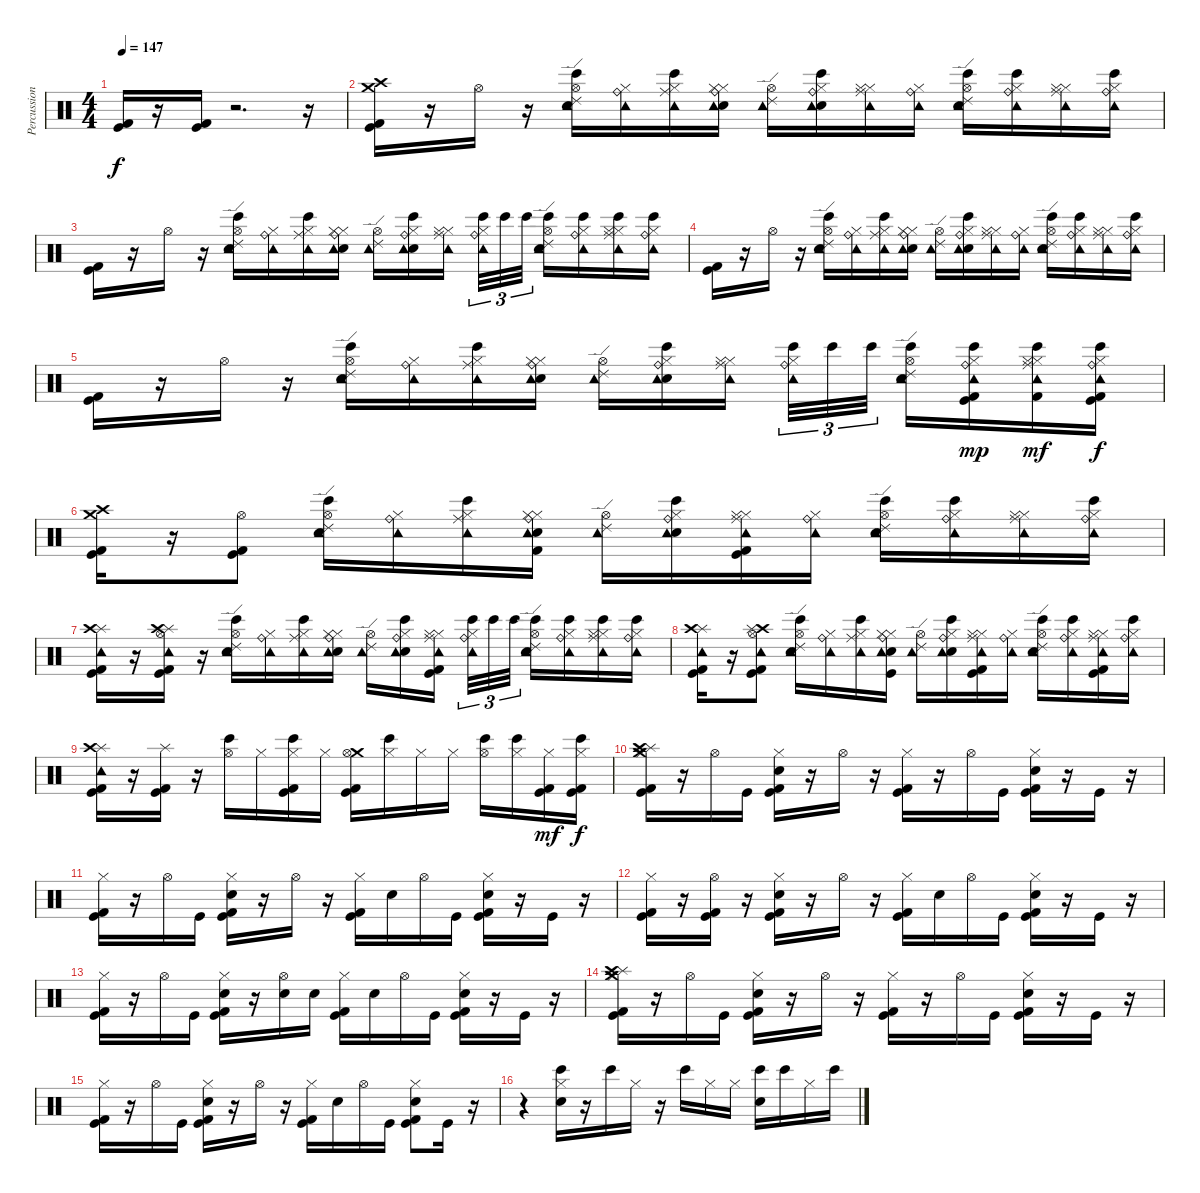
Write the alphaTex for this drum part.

\track ("Percussion (Room Kit)" "Percussion") {instrument percussion}
\staff {score}
\articulation defaults
\ts (4 4)
\tempo 147
\clef neutral
\ks c
("Kick (hit) 2" "Kick (hit)").16{dy f} r.16 ("Kick (hit) 2" "Kick (hit)").16 r.2{d} r.16 |
("Crash medium (hit)" "Crash high (hit)" "Kick (hit) 2" "Kick (hit)").16 r.16 "Hi-Hat (open)".16 r.16 ("Hi-Hat (open)" "Hand Clap (hit)" "Bongo High (hit)" "Tambourine (hit)" "Ride (edge) 2").16 ("Hi-Hat (closed)" "Tambourine (hit)" "Ride (bell)").16 ("Hi-Hat (closed)" "Bongo High (hit)" "Tambourine (hit)" "Ride (middle)").16 ("Hi-Hat (closed)" "Hand Clap (hit)" "Hi-Hat (closed)" "Tambourine (hit)" "Ride (bell)").16 ("Hi-Hat (open)" "Tambourine (hit)" "Ride (edge) 2").16 ("Hi-Hat (closed)" "Hand Clap (hit)" "Bongo High (hit)" "Tambourine (hit)" "Ride (bell)").16 ("Hi-Hat (closed)" "Hi-Hat (closed)" "Tambourine (hit)" "Ride (middle)").16 ("Hi-Hat (closed)" "Tambourine (hit)" "Ride (bell)").16 ("Hi-Hat (open)" "Hand Clap (hit)" "Bongo High (hit)" "Tambourine (hit)" "Ride (edge) 2").16 ("Hi-Hat (closed)" "Bongo High (hit)" "Tambourine (hit)" "Ride (bell)").16 ("Hi-Hat (closed)" "Hi-Hat (closed)" "Tambourine (hit)" "Ride (middle)").16 ("Hi-Hat (closed)" "Bongo High (hit)" "Tambourine (hit)" "Ride (bell)").16 |
("Kick (hit) 2" "Kick (hit)").16 r.16 "Hi-Hat (open)".16 r.16 ("Hi-Hat (open)" "Hand Clap (hit)" "Bongo High (hit)" "Tambourine (hit)" "Ride (edge) 2").16 ("Hi-Hat (closed)" "Tambourine (hit)" "Ride (bell)").16 ("Hi-Hat (closed)" "Bongo High (hit)" "Tambourine (hit)" "Ride (middle)").16 ("Hi-Hat (closed)" "Hand Clap (hit)" "Hi-Hat (closed)" "Tambourine (hit)" "Ride (bell)").16 ("Hi-Hat (open)" "Tambourine (hit)" "Ride (edge) 2").16 ("Hi-Hat (closed)" "Hand Clap (hit)" "Bongo High (hit)" "Tambourine (hit)" "Ride (bell)").16 ("Hi-Hat (closed)" "Hi-Hat (closed)" "Tambourine (hit)" "Ride (middle)").16{beam splitsecondary} ("Hi-Hat (closed)" "Tambourine (hit)" "Ride (bell)" "Bongo High (hit)").32{tu (3 2)} "Bongo High (hit)".32{tu (3 2)} "Bongo High (hit)".32{tu (3 2)} ("Hi-Hat (open)" "Hand Clap (hit)" "Bongo High (hit)" "Tambourine (hit)" "Ride (edge) 2").16 ("Hi-Hat (closed)" "Bongo High (hit)" "Tambourine (hit)" "Ride (bell)").16 ("Hi-Hat (closed)" "Hi-Hat (closed)" "Tambourine (hit)" "Ride (middle)" "Bongo High (hit)").16 ("Hi-Hat (closed)" "Bongo High (hit)" "Tambourine (hit)" "Ride (bell)").16 |
("Kick (hit) 2" "Kick (hit)").16 r.16 "Hi-Hat (open)".16 r.16 ("Hi-Hat (open)" "Hand Clap (hit)" "Bongo High (hit)" "Tambourine (hit)" "Ride (edge) 2").16 ("Hi-Hat (closed)" "Tambourine (hit)" "Ride (bell)").16 ("Hi-Hat (closed)" "Bongo High (hit)" "Tambourine (hit)" "Ride (middle)").16 ("Hi-Hat (closed)" "Hand Clap (hit)" "Hi-Hat (closed)" "Tambourine (hit)" "Ride (bell)").16 ("Hi-Hat (open)" "Tambourine (hit)" "Ride (edge) 2").16 ("Hi-Hat (closed)" "Hand Clap (hit)" "Bongo High (hit)" "Tambourine (hit)" "Ride (bell)").16 ("Hi-Hat (closed)" "Hi-Hat (closed)" "Tambourine (hit)" "Ride (middle)").16 ("Hi-Hat (closed)" "Tambourine (hit)" "Ride (bell)").16 ("Hi-Hat (open)" "Hand Clap (hit)" "Bongo High (hit)" "Tambourine (hit)" "Ride (edge) 2").16 ("Hi-Hat (closed)" "Bongo High (hit)" "Tambourine (hit)" "Ride (bell)").16 ("Hi-Hat (closed)" "Hi-Hat (closed)" "Tambourine (hit)" "Ride (middle)").16 ("Hi-Hat (closed)" "Bongo High (hit)" "Tambourine (hit)" "Ride (bell)").16 |
("Kick (hit) 2" "Kick (hit)").16 r.16 "Hi-Hat (open)".16 r.16 ("Hi-Hat (open)" "Hand Clap (hit)" "Bongo High (hit)" "Tambourine (hit)" "Ride (edge) 2").16 ("Hi-Hat (closed)" "Tambourine (hit)" "Ride (bell)").16 ("Hi-Hat (closed)" "Bongo High (hit)" "Tambourine (hit)" "Ride (middle)").16 ("Hi-Hat (closed)" "Hand Clap (hit)" "Hi-Hat (closed)" "Tambourine (hit)" "Ride (bell)").16 ("Hi-Hat (open)" "Tambourine (hit)" "Ride (edge) 2").16 ("Hi-Hat (closed)" "Hand Clap (hit)" "Bongo High (hit)" "Tambourine (hit)" "Ride (bell)").16 ("Hi-Hat (closed)" "Hi-Hat (closed)" "Tambourine (hit)" "Ride (middle)").16{beam splitsecondary} ("Hi-Hat (closed)" "Tambourine (hit)" "Ride (bell)" "Bongo High (hit)").32{tu (3 2)} "Bongo High (hit)".32{tu (3 2)} "Bongo High (hit)".32{tu (3 2)} ("Hi-Hat (open)" "Hand Clap (hit)" "Bongo High (hit)" "Tambourine (hit)" "Ride (edge) 2").16 ("Hi-Hat (closed)" "Bongo High (hit)" "Tambourine (hit)" "Ride (bell)" "Kick (hit) 2" "Kick (hit)").16{dy mp} ("Hi-Hat (closed)" "Hi-Hat (closed)" "Tambourine (hit)" "Ride (middle)" "Bongo High (hit)" "Kick (hit) 2").16{dy mf} ("Hi-Hat (closed)" "Bongo High (hit)" "Tambourine (hit)" "Ride (bell)" "Kick (hit) 2" "Kick (hit)").16{dy f} |
("Crash medium (hit)" "Crash high (hit)" "Kick (hit) 2" "Kick (hit)").16 r.16 ("Hi-Hat (open)" "Kick (hit) 2" "Kick (hit)").8 ("Hi-Hat (open)" "Hand Clap (hit)" "Bongo High (hit)" "Tambourine (hit)" "Ride (edge) 2").16 ("Hi-Hat (closed)" "Tambourine (hit)" "Ride (bell)").16 ("Hi-Hat (closed)" "Bongo High (hit)" "Tambourine (hit)" "Ride (middle)").16 ("Hi-Hat (closed)" "Hand Clap (hit)" "Hi-Hat (closed)" "Tambourine (hit)" "Ride (bell)" "Kick (hit) 2").16 ("Hi-Hat (open)" "Tambourine (hit)" "Ride (edge) 2").16 ("Hi-Hat (closed)" "Hand Clap (hit)" "Bongo High (hit)" "Tambourine (hit)" "Ride (bell)").16 ("Hi-Hat (closed)" "Hi-Hat (closed)" "Tambourine (hit)" "Ride (middle)" "Kick (hit)" "Kick (hit) 2").16 ("Hi-Hat (closed)" "Tambourine (hit)" "Ride (bell)").16 ("Hi-Hat (open)" "Hand Clap (hit)" "Bongo High (hit)" "Tambourine (hit)" "Ride (edge) 2").16 ("Hi-Hat (closed)" "Bongo High (hit)" "Tambourine (hit)" "Ride (bell)").16 ("Hi-Hat (closed)" "Hi-Hat (closed)" "Tambourine (hit)" "Ride (middle)").16 ("Hi-Hat (closed)" "Bongo High (hit)" "Tambourine (hit)" "Ride (bell)").16 |
("Kick (hit) 2" "Kick (hit)" "Splash (hit)" "Crash high (hit)" "Tambourine (hit)").16 r.16 ("Hi-Hat (open)" "Kick (hit) 2" "Kick (hit)" "Splash (hit)" "Crash high (hit)" "Tambourine (hit)").16 r.16 ("Hi-Hat (open)" "Hand Clap (hit)" "Bongo High (hit)" "Tambourine (hit)" "Ride (edge) 2").16 ("Hi-Hat (closed)" "Tambourine (hit)" "Ride (bell)").16 ("Hi-Hat (closed)" "Bongo High (hit)" "Tambourine (hit)" "Ride (middle)").16 ("Hi-Hat (closed)" "Hand Clap (hit)" "Hi-Hat (closed)" "Tambourine (hit)" "Ride (bell)").16 ("Hi-Hat (open)" "Tambourine (hit)" "Ride (edge) 2").16 ("Hi-Hat (closed)" "Hand Clap (hit)" "Bongo High (hit)" "Tambourine (hit)" "Ride (bell)").16 ("Hi-Hat (closed)" "Hi-Hat (closed)" "Tambourine (hit)" "Ride (middle)" "Kick (hit) 2" "Kick (hit)").16{beam splitsecondary} ("Hi-Hat (closed)" "Tambourine (hit)" "Ride (bell)" "Bongo High (hit)").32{tu (3 2)} "Bongo High (hit)".32{tu (3 2)} "Bongo High (hit)".32{tu (3 2)} ("Hi-Hat (open)" "Hand Clap (hit)" "Bongo High (hit)" "Tambourine (hit)" "Ride (edge) 2").16 ("Hi-Hat (closed)" "Bongo High (hit)" "Tambourine (hit)" "Ride (bell)").16 ("Hi-Hat (closed)" "Hi-Hat (closed)" "Tambourine (hit)" "Ride (middle)" "Bongo High (hit)").16 ("Hi-Hat (closed)" "Bongo High (hit)" "Tambourine (hit)" "Ride (bell)").16 |
("Kick (hit) 2" "Kick (hit)" "Splash (hit)" "Crash high (hit)" "Tambourine (hit)").16 r.16 ("Hi-Hat (open)" "Crash high (hit)" "Splash (hit)" "Kick (hit) 2" "Kick (hit)" "Tambourine (hit)").8 ("Hi-Hat (open)" "Hand Clap (hit)" "Bongo High (hit)" "Tambourine (hit)" "Ride (edge) 2").16 ("Hi-Hat (closed)" "Tambourine (hit)" "Ride (bell)").16 ("Hi-Hat (closed)" "Bongo High (hit)" "Tambourine (hit)" "Ride (middle)").16 ("Hi-Hat (closed)" "Hand Clap (hit)" "Hi-Hat (closed)" "Tambourine (hit)" "Ride (bell)" "Kick (hit)").16 ("Hi-Hat (open)" "Tambourine (hit)" "Ride (edge) 2").16 ("Hi-Hat (closed)" "Hand Clap (hit)" "Bongo High (hit)" "Tambourine (hit)" "Ride (bell)").16 ("Hi-Hat (closed)" "Hi-Hat (closed)" "Tambourine (hit)" "Ride (middle)" "Kick (hit)" "Kick (hit) 2").16 ("Hi-Hat (closed)" "Tambourine (hit)" "Ride (bell)").16 ("Hi-Hat (open)" "Hand Clap (hit)" "Bongo High (hit)" "Tambourine (hit)" "Ride (edge) 2").16 ("Hi-Hat (closed)" "Bongo High (hit)" "Tambourine (hit)" "Ride (bell)").16 ("Hi-Hat (closed)" "Hi-Hat (closed)" "Tambourine (hit)" "Ride (middle)" "Kick (hit) 2" "Kick (hit)").16 ("Hi-Hat (closed)" "Bongo High (hit)" "Tambourine (hit)" "Ride (bell)").16 |
("Tambourine (hit)" "Splash (hit)" "Crash high (hit)" "Kick (hit) 2" "Kick (hit)").16 r.16 ("Splash (hit)" "Kick (hit) 2" "Kick (hit)").16 r.16 ("Bongo High (hit)" "Hi-Hat (open)").16 "Hi-Hat (closed)".16 ("Bongo High (hit)" "Hi-Hat (closed)" "Kick (hit) 2" "Kick (hit)").16 "Hi-Hat (closed)".16 ("Crash medium (hit)" "Hi-Hat (open)" "Kick (hit) 2" "Kick (hit)").16 ("Bongo High (hit)" "Hi-Hat (closed)").16 "Hi-Hat (closed)".16 "Hi-Hat (closed)".16 ("Bongo High (hit)" "Hi-Hat (open)").16 ("Bongo High (hit)" "Hi-Hat (closed)").16 ("Hi-Hat (closed)" "Kick (hit) 2" "Kick (hit)").16{dy mf} ("Bongo High (hit)" "Hi-Hat (closed)" "Kick (hit) 2" "Kick (hit)").16{dy f} |
("Crash medium (hit)" "Splash (hit)" "Crash high (hit)" "Kick (hit) 2" "Kick (hit)" "Hi-Hat (closed)").16 r.16 "Hi-Hat (open)".16 "Kick (hit)".16 ("Kick (hit) 2" "Kick (hit)" "Hand Clap (hit)" "Hi-Hat (closed)").16 r.16 "Hi-Hat (open)".16 r.16 ("Kick (hit) 2" "Kick (hit)" "Hi-Hat (closed)").16 r.16 "Hi-Hat (open)".16 "Kick (hit)".16 ("Kick (hit) 2" "Kick (hit)" "Hi-Hat (closed)" "Hand Clap (hit)").16 r.16 "Kick (hit)".16 r.16 |
("Kick (hit) 2" "Kick (hit)" "Hi-Hat (closed)").16 r.16 "Hi-Hat (open)".16 "Kick (hit)".16 ("Kick (hit) 2" "Kick (hit)" "Hand Clap (hit)" "Hi-Hat (closed)").16 r.16 "Hi-Hat (open)".16 r.16 ("Kick (hit) 2" "Kick (hit)" "Hi-Hat (closed)").16 "Hand Clap (hit)".16 "Hi-Hat (open)".16 "Kick (hit)".16 ("Kick (hit) 2" "Kick (hit)" "Hi-Hat (closed)" "Hand Clap (hit)").16 r.16 "Kick (hit)".16 r.16 |
("Kick (hit) 2" "Kick (hit)" "Hi-Hat (closed)").16 r.16 ("Hi-Hat (open)" "Kick (hit)" "Kick (hit) 2").16 r.16 ("Kick (hit) 2" "Kick (hit)" "Hand Clap (hit)" "Hi-Hat (closed)").16 r.16 "Hi-Hat (open)".16 r.16 ("Kick (hit) 2" "Kick (hit)" "Hi-Hat (closed)").16 "Hand Clap (hit)".16 "Hi-Hat (open)".16 "Kick (hit)".16 ("Kick (hit) 2" "Kick (hit)" "Hi-Hat (closed)" "Hand Clap (hit)").16 r.16 "Kick (hit)".16 r.16 |
("Kick (hit) 2" "Kick (hit)" "Hi-Hat (closed)").16 r.16 "Hi-Hat (open)".16 "Kick (hit)".16 ("Kick (hit) 2" "Kick (hit)" "Hand Clap (hit)" "Hi-Hat (closed)").16 r.16 ("Hi-Hat (open)" "Hand Clap (hit)").16 "Hand Clap (hit)".16 ("Kick (hit) 2" "Kick (hit)" "Hi-Hat (closed)").16 "Hand Clap (hit)".16 "Hi-Hat (open)".16 "Kick (hit)".16 ("Kick (hit) 2" "Kick (hit)" "Hi-Hat (closed)" "Hand Clap (hit)").16 r.16 "Kick (hit)".16 r.16 |
("Crash medium (hit)" "Splash (hit)" "Crash high (hit)" "Kick (hit) 2" "Kick (hit)" "Hi-Hat (closed)").16 r.16 "Hi-Hat (open)".16 "Kick (hit)".16 ("Kick (hit) 2" "Kick (hit)" "Hand Clap (hit)" "Hi-Hat (closed)").16 r.16 "Hi-Hat (open)".16 r.16 ("Kick (hit) 2" "Kick (hit)" "Hi-Hat (closed)").16 r.16 "Hi-Hat (open)".16 "Kick (hit)".16 ("Kick (hit) 2" "Kick (hit)" "Hi-Hat (closed)" "Hand Clap (hit)").16 r.16 "Kick (hit)".16 r.16 |
("Kick (hit) 2" "Kick (hit)" "Hi-Hat (closed)").16 r.16 "Hi-Hat (open)".16 "Kick (hit)".16 ("Kick (hit) 2" "Kick (hit)" "Hand Clap (hit)" "Hi-Hat (closed)").16 r.16 "Hi-Hat (open)".16 r.16 ("Kick (hit) 2" "Kick (hit)" "Hi-Hat (closed)").16 "Hand Clap (hit)".16 "Hi-Hat (open)".16 "Kick (hit)".16 ("Kick (hit) 2" "Kick (hit)" "Hi-Hat (closed)" "Hand Clap (hit)").8 "Kick (hit)".16 r.16 |
r.4 ("Hand Clap (hit)" "Bongo High (hit)" "Hi-Hat (closed)").16 r.16 "Bongo High (hit)".16 "Hi-Hat (closed)".16 r.16 "Bongo High (hit)".16 "Hi-Hat (closed)".16 "Hi-Hat (closed)".16 ("Hand Clap (hit)" "Bongo High (hit)").16 "Bongo High (hit)".16 "Hi-Hat (closed)".16 "Bongo High (hit)".16
